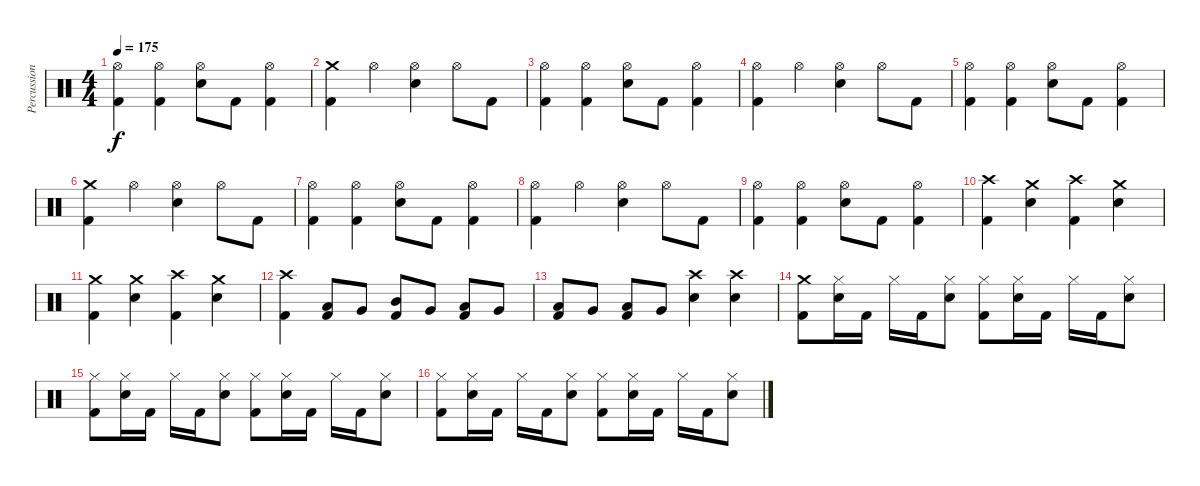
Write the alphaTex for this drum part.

\track ("Percussion" "Percussion") {instrument percussion}
\staff {score}
\articulation defaults
\ts (4 4)
\tempo 175
\clef neutral
\ks c
("Hi-Hat (open)" "Kick (hit) 2").4{dy f} ("Hi-Hat (open)" "Kick (hit) 2").4 ("Hi-Hat (open)" "Electric Snare (hit)").8 "Kick (hit) 2".8 ("Hi-Hat (open)" "Kick (hit) 2").4 |
("Crash medium (hit)" "Kick (hit) 2").4 "Hi-Hat (open)".4 ("Hi-Hat (open)" "Electric Snare (hit)").4 "Hi-Hat (open)".8 "Kick (hit) 2".8 |
("Hi-Hat (open)" "Kick (hit) 2").4 ("Hi-Hat (open)" "Kick (hit) 2").4 ("Hi-Hat (open)" "Electric Snare (hit)").8 "Kick (hit) 2".8 ("Hi-Hat (open)" "Kick (hit) 2").4 |
("Hi-Hat (open)" "Kick (hit) 2").4 "Hi-Hat (open)".4 ("Hi-Hat (open)" "Electric Snare (hit)").4 "Hi-Hat (open)".8 "Kick (hit) 2".8 |
("Hi-Hat (open)" "Kick (hit) 2").4 ("Hi-Hat (open)" "Kick (hit) 2").4 ("Hi-Hat (open)" "Electric Snare (hit)").8 "Kick (hit) 2".8 ("Hi-Hat (open)" "Kick (hit) 2").4 |
("Crash medium (hit)" "Kick (hit) 2").4 "Hi-Hat (open)".4 ("Hi-Hat (open)" "Electric Snare (hit)").4 "Hi-Hat (open)".8 "Kick (hit) 2".8 |
("Hi-Hat (open)" "Kick (hit) 2").4 ("Hi-Hat (open)" "Kick (hit) 2").4 ("Hi-Hat (open)" "Electric Snare (hit)").8 "Kick (hit) 2".8 ("Hi-Hat (open)" "Kick (hit) 2").4 |
("Hi-Hat (open)" "Kick (hit) 2").4 "Hi-Hat (open)".4 ("Hi-Hat (open)" "Electric Snare (hit)").4 "Hi-Hat (open)".8 "Kick (hit) 2".8 |
("Hi-Hat (open)" "Kick (hit) 2").4 ("Hi-Hat (open)" "Kick (hit) 2").4 ("Hi-Hat (open)" "Electric Snare (hit)").8 "Kick (hit) 2".8 ("Hi-Hat (open)" "Kick (hit) 2").4 |
("Crash high (hit)" "Kick (hit) 2").4 ("Crash medium (hit)" "Electric Snare (hit)").4 ("Crash high (hit)" "Kick (hit) 2").4 ("Crash medium (hit)" "Electric Snare (hit)").4 |
("Crash medium (hit)" "Kick (hit) 2").4 ("Crash medium (hit)" "Electric Snare (hit)").4 ("Crash high (hit)" "Kick (hit) 2").4 ("Crash medium (hit)" "Electric Snare (hit)").4 |
("Crash high (hit)" "Kick (hit) 2").4 ("Low Tom (hit)" "Kick (hit) 2").8 "Very Low Tom (hit)".8 ("Mid Tom (hit)" "Kick (hit) 2").8 "Very Low Tom (hit)".8 ("Low Tom (hit)" "Kick (hit) 2").8 "Very Low Tom (hit)".8 |
("Low Floor Tom (hit)" "Kick (hit) 2").8 "Very Low Tom (hit)".8 ("Low Floor Tom (hit)" "Kick (hit) 2").8 "Very Low Tom (hit)".8 ("Crash high (hit)" "Electric Snare (hit)").4 ("Crash high (hit)" "Electric Snare (hit)").4 |
("Crash medium (hit)" "Kick (hit) 2").8 ("Hi-Hat (closed)" "Electric Snare (hit)").16 "Kick (hit) 2".16 "Hi-Hat (closed)".16 "Kick (hit) 2".16 ("Hi-Hat (closed)" "Electric Snare (hit)").8 ("Hi-Hat (closed)" "Kick (hit) 2").8 ("Hi-Hat (closed)" "Electric Snare (hit)").16 "Kick (hit) 2".16 "Hi-Hat (closed)".16 "Kick (hit) 2".16 ("Hi-Hat (closed)" "Electric Snare (hit)").8 |
("Hi-Hat (closed)" "Kick (hit) 2").8 ("Hi-Hat (closed)" "Electric Snare (hit)").16 "Kick (hit) 2".16 "Hi-Hat (closed)".16 "Kick (hit) 2".16 ("Hi-Hat (closed)" "Electric Snare (hit)").8 ("Hi-Hat (closed)" "Kick (hit) 2").8 ("Hi-Hat (closed)" "Electric Snare (hit)").16 "Kick (hit) 2".16 "Hi-Hat (closed)".16 "Kick (hit) 2".16 ("Hi-Hat (closed)" "Electric Snare (hit)").8 |
("Hi-Hat (closed)" "Kick (hit) 2").8 ("Hi-Hat (closed)" "Electric Snare (hit)").16 "Kick (hit) 2".16 "Hi-Hat (closed)".16 "Kick (hit) 2".16 ("Hi-Hat (closed)" "Electric Snare (hit)").8 ("Hi-Hat (closed)" "Kick (hit) 2").8 ("Hi-Hat (closed)" "Electric Snare (hit)").16 "Kick (hit) 2".16 "Hi-Hat (closed)".16 "Kick (hit) 2".16 ("Hi-Hat (closed)" "Electric Snare (hit)").8
